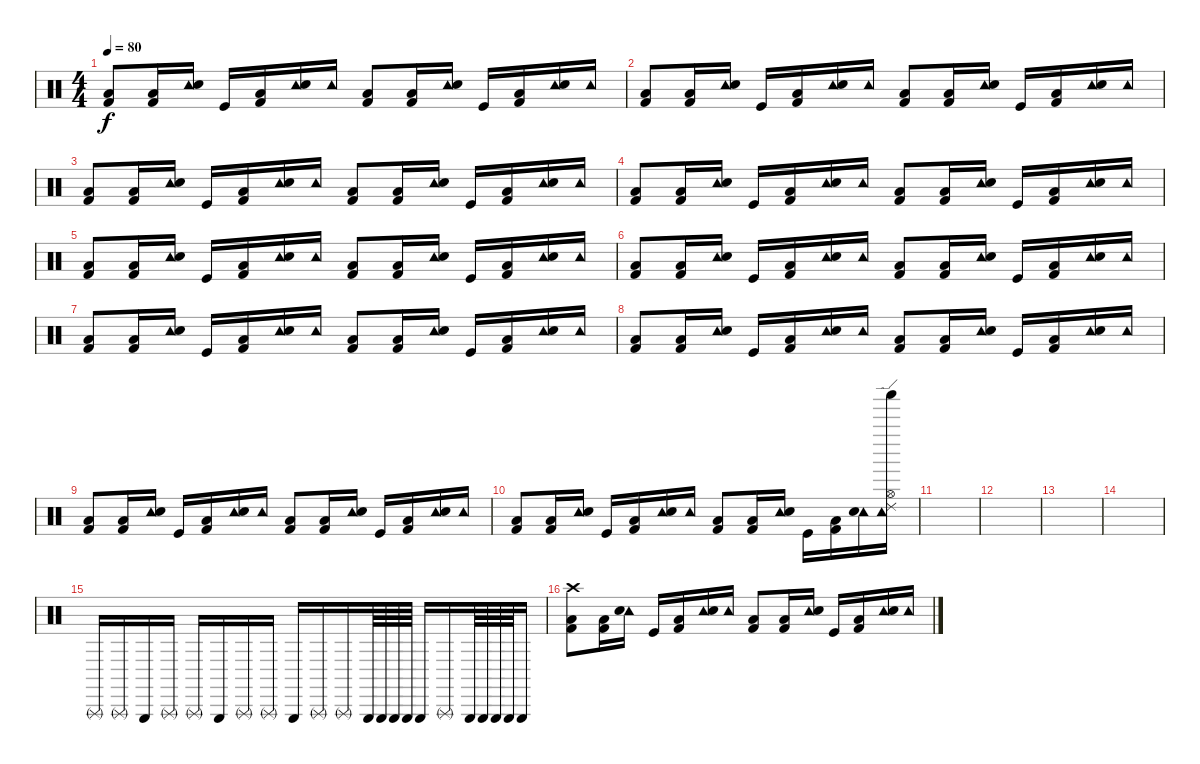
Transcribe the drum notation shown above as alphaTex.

\track "" {instrument percussion}
\staff {score}
\articulation defaults
\ts (4 4)
\tempo 80
\clef neutral
\ks c
("Kick (hit) 2" "Low Floor Tom (hit)").8{dy f} ("Kick (hit) 2" "Low Floor Tom (hit)").16 ("Tambourine (hit)" "Electric Snare (hit)").16 "Kick (hit)".16 ("Kick (hit) 2" "Low Floor Tom (hit)").16 ("Tambourine (hit)" "Electric Snare (hit)").16 "Tambourine (hit)".16 ("Kick (hit) 2" "Low Floor Tom (hit)").8 ("Kick (hit) 2" "Low Floor Tom (hit)").16 ("Tambourine (hit)" "Electric Snare (hit)").16 "Kick (hit)".16 ("Kick (hit) 2" "Low Floor Tom (hit)").16 ("Tambourine (hit)" "Electric Snare (hit)").16 "Tambourine (hit)".16 |
("Kick (hit) 2" "Low Floor Tom (hit)").8 ("Kick (hit) 2" "Low Floor Tom (hit)").16 ("Tambourine (hit)" "Electric Snare (hit)").16 "Kick (hit)".16 ("Kick (hit) 2" "Low Floor Tom (hit)").16 ("Tambourine (hit)" "Electric Snare (hit)").16 "Tambourine (hit)".16 ("Kick (hit) 2" "Low Floor Tom (hit)").8 ("Kick (hit) 2" "Low Floor Tom (hit)").16 ("Tambourine (hit)" "Electric Snare (hit)").16 "Kick (hit)".16 ("Kick (hit) 2" "Low Floor Tom (hit)").16 ("Tambourine (hit)" "Electric Snare (hit)").16 "Tambourine (hit)".16 |
("Kick (hit) 2" "Low Floor Tom (hit)").8 ("Kick (hit) 2" "Low Floor Tom (hit)").16 ("Tambourine (hit)" "Electric Snare (hit)").16 "Kick (hit)".16 ("Kick (hit) 2" "Low Floor Tom (hit)").16 ("Tambourine (hit)" "Electric Snare (hit)").16 "Tambourine (hit)".16 ("Kick (hit) 2" "Low Floor Tom (hit)").8 ("Kick (hit) 2" "Low Floor Tom (hit)").16 ("Tambourine (hit)" "Electric Snare (hit)").16 "Kick (hit)".16 ("Kick (hit) 2" "Low Floor Tom (hit)").16 ("Tambourine (hit)" "Electric Snare (hit)").16 "Tambourine (hit)".16 |
("Kick (hit) 2" "Low Floor Tom (hit)").8 ("Kick (hit) 2" "Low Floor Tom (hit)").16 ("Tambourine (hit)" "Electric Snare (hit)").16 "Kick (hit)".16 ("Kick (hit) 2" "Low Floor Tom (hit)").16 ("Tambourine (hit)" "Electric Snare (hit)").16 "Tambourine (hit)".16 ("Kick (hit) 2" "Low Floor Tom (hit)").8 ("Kick (hit) 2" "Low Floor Tom (hit)").16 ("Tambourine (hit)" "Electric Snare (hit)").16 "Kick (hit)".16 ("Kick (hit) 2" "Low Floor Tom (hit)").16 ("Tambourine (hit)" "Electric Snare (hit)").16 "Tambourine (hit)".16 |
("Kick (hit) 2" "Low Floor Tom (hit)").8 ("Kick (hit) 2" "Low Floor Tom (hit)").16 ("Tambourine (hit)" "Electric Snare (hit)").16 "Kick (hit)".16 ("Kick (hit) 2" "Low Floor Tom (hit)").16 ("Tambourine (hit)" "Electric Snare (hit)").16 "Tambourine (hit)".16 ("Kick (hit) 2" "Low Floor Tom (hit)").8 ("Kick (hit) 2" "Low Floor Tom (hit)").16 ("Tambourine (hit)" "Electric Snare (hit)").16 "Kick (hit)".16 ("Kick (hit) 2" "Low Floor Tom (hit)").16 ("Tambourine (hit)" "Electric Snare (hit)").16 "Tambourine (hit)".16 |
("Kick (hit) 2" "Low Floor Tom (hit)").8 ("Kick (hit) 2" "Low Floor Tom (hit)").16 ("Tambourine (hit)" "Electric Snare (hit)").16 "Kick (hit)".16 ("Kick (hit) 2" "Low Floor Tom (hit)").16 ("Tambourine (hit)" "Electric Snare (hit)").16 "Tambourine (hit)".16 ("Kick (hit) 2" "Low Floor Tom (hit)").8 ("Kick (hit) 2" "Low Floor Tom (hit)").16 ("Tambourine (hit)" "Electric Snare (hit)").16 "Kick (hit)".16 ("Kick (hit) 2" "Low Floor Tom (hit)").16 ("Tambourine (hit)" "Electric Snare (hit)").16 "Tambourine (hit)".16 |
("Kick (hit) 2" "Low Floor Tom (hit)").8 ("Kick (hit) 2" "Low Floor Tom (hit)").16 ("Tambourine (hit)" "Electric Snare (hit)").16 "Kick (hit)".16 ("Kick (hit) 2" "Low Floor Tom (hit)").16 ("Tambourine (hit)" "Electric Snare (hit)").16 "Tambourine (hit)".16 ("Kick (hit) 2" "Low Floor Tom (hit)").8 ("Kick (hit) 2" "Low Floor Tom (hit)").16 ("Tambourine (hit)" "Electric Snare (hit)").16 "Kick (hit)".16 ("Kick (hit) 2" "Low Floor Tom (hit)").16 ("Tambourine (hit)" "Electric Snare (hit)").16 "Tambourine (hit)".16 |
("Kick (hit) 2" "Low Floor Tom (hit)").8 ("Kick (hit) 2" "Low Floor Tom (hit)").16 ("Tambourine (hit)" "Electric Snare (hit)").16 "Kick (hit)".16 ("Kick (hit) 2" "Low Floor Tom (hit)").16 ("Tambourine (hit)" "Electric Snare (hit)").16 "Tambourine (hit)".16 ("Kick (hit) 2" "Low Floor Tom (hit)").8 ("Kick (hit) 2" "Low Floor Tom (hit)").16 ("Tambourine (hit)" "Electric Snare (hit)").16 "Kick (hit)".16 ("Kick (hit) 2" "Low Floor Tom (hit)").16 ("Tambourine (hit)" "Electric Snare (hit)").16 "Tambourine (hit)".16 |
("Kick (hit) 2" "Low Floor Tom (hit)").8 ("Kick (hit) 2" "Low Floor Tom (hit)").16 ("Tambourine (hit)" "Electric Snare (hit)").16 "Kick (hit)".16 ("Kick (hit) 2" "Low Floor Tom (hit)").16 ("Tambourine (hit)" "Electric Snare (hit)").16 "Tambourine (hit)".16 ("Kick (hit) 2" "Low Floor Tom (hit)").8 ("Kick (hit) 2" "Low Floor Tom (hit)").16 ("Tambourine (hit)" "Electric Snare (hit)").16 "Kick (hit)".16 ("Kick (hit) 2" "Low Floor Tom (hit)").16 ("Tambourine (hit)" "Electric Snare (hit)").16 "Tambourine (hit)".16 |
("Kick (hit) 2" "Low Floor Tom (hit)").8 ("Kick (hit) 2" "Low Floor Tom (hit)").16 ("Tambourine (hit)" "Electric Snare (hit)").16 "Kick (hit)".16 ("Kick (hit) 2" "Low Floor Tom (hit)").16 ("Tambourine (hit)" "Electric Snare (hit)").16 "Tambourine (hit)".16 ("Kick (hit) 2" "Low Floor Tom (hit)").8 ("Kick (hit) 2" "Low Floor Tom (hit)").16 ("Tambourine (hit)" "Electric Snare (hit)").16 "Kick (hit)".16 ("Kick (hit) 2" "Low Floor Tom (hit)").16 ("Tambourine (hit)" "Electric Snare (hit)").16 ("Tambourine (hit)" "Shaker (hit)" "Ride (edge) 2" "Hi-Hat (open)").16 |
|
|
|
|
"Triangle (rnute)".16 "Triangle (rnute)".16 "Triangle (hit)".16 "Triangle (rnute)".16 "Triangle (rnute)".16 "Triangle (hit)".16 "Triangle (rnute)".16 "Triangle (rnute)".16 "Triangle (hit)".16 "Triangle (rnute)".16 "Triangle (rnute)".16 "Triangle (hit)".64 "Triangle (hit)".64 "Triangle (hit)".64 "Triangle (hit)".64 "Triangle (hit)".16 "Triangle (rnute)".16 "Triangle (hit)".64 "Triangle (hit)".64 "Triangle (hit)".64 "Triangle (hit)".64 "Triangle (hit)".16 |
("Crash high (hit)" "Kick (hit) 2" "Low Floor Tom (hit)").8 ("Kick (hit) 2" "Low Floor Tom (hit)").16 ("Tambourine (hit)" "Electric Snare (hit)").16 "Kick (hit)".16 ("Kick (hit) 2" "Low Floor Tom (hit)").16 ("Tambourine (hit)" "Electric Snare (hit)").16 "Tambourine (hit)".16 ("Kick (hit) 2" "Low Floor Tom (hit)").8 ("Kick (hit) 2" "Low Floor Tom (hit)").16 ("Tambourine (hit)" "Electric Snare (hit)").16 "Kick (hit)".16 ("Kick (hit) 2" "Low Floor Tom (hit)").16 ("Tambourine (hit)" "Electric Snare (hit)").16 "Tambourine (hit)".16
